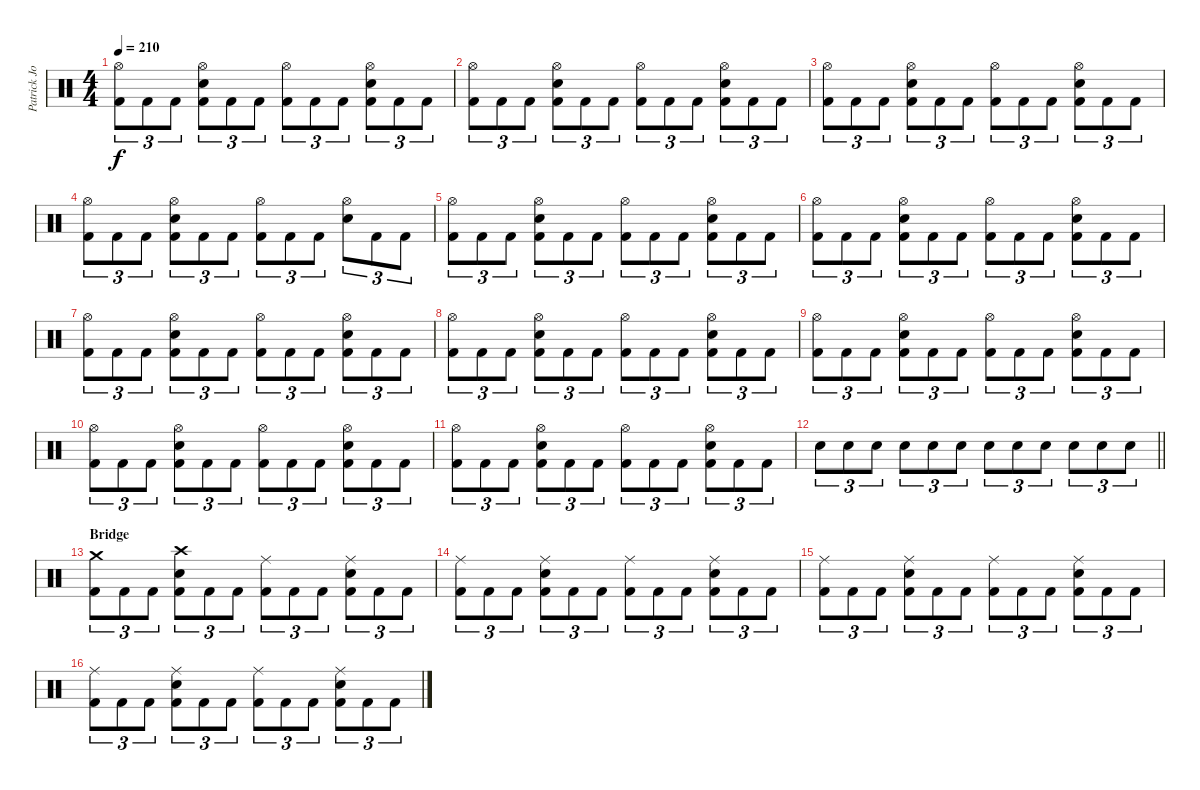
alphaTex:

\track ("Patrick Johansson" "Patrick Jo") {instrument percussion}
\staff {score}
\articulation defaults
\ts (4 4)
\tempo 210
\clef neutral
\ks c
("Hi-Hat (open)" "Kick (hit) 2").8{tu (3 2) dy f} "Kick (hit) 2".8{tu (3 2)} "Kick (hit) 2".8{tu (3 2)} ("Hi-Hat (open)" "Snare (hit) 2" "Kick (hit) 2").8{tu (3 2)} "Kick (hit) 2".8{tu (3 2)} "Kick (hit) 2".8{tu (3 2)} ("Hi-Hat (open)" "Kick (hit) 2").8{tu (3 2)} "Kick (hit) 2".8{tu (3 2)} "Kick (hit) 2".8{tu (3 2)} ("Hi-Hat (open)" "Snare (hit) 2" "Kick (hit) 2").8{tu (3 2)} "Kick (hit) 2".8{tu (3 2)} "Kick (hit) 2".8{tu (3 2)} |
("Hi-Hat (open)" "Kick (hit) 2").8{tu (3 2)} "Kick (hit) 2".8{tu (3 2)} "Kick (hit) 2".8{tu (3 2)} ("Hi-Hat (open)" "Snare (hit) 2" "Kick (hit) 2").8{tu (3 2)} "Kick (hit) 2".8{tu (3 2)} "Kick (hit) 2".8{tu (3 2)} ("Hi-Hat (open)" "Kick (hit) 2").8{tu (3 2)} "Kick (hit) 2".8{tu (3 2)} "Kick (hit) 2".8{tu (3 2)} ("Hi-Hat (open)" "Snare (hit) 2" "Kick (hit) 2").8{tu (3 2)} "Kick (hit) 2".8{tu (3 2)} "Kick (hit) 2".8{tu (3 2)} |
("Hi-Hat (open)" "Kick (hit) 2").8{tu (3 2)} "Kick (hit) 2".8{tu (3 2)} "Kick (hit) 2".8{tu (3 2)} ("Hi-Hat (open)" "Snare (hit) 2" "Kick (hit) 2").8{tu (3 2)} "Kick (hit) 2".8{tu (3 2)} "Kick (hit) 2".8{tu (3 2)} ("Hi-Hat (open)" "Kick (hit) 2").8{tu (3 2)} "Kick (hit) 2".8{tu (3 2)} "Kick (hit) 2".8{tu (3 2)} ("Hi-Hat (open)" "Snare (hit) 2" "Kick (hit) 2").8{tu (3 2)} "Kick (hit) 2".8{tu (3 2)} "Kick (hit) 2".8{tu (3 2)} |
("Hi-Hat (open)" "Kick (hit) 2").8{tu (3 2)} "Kick (hit) 2".8{tu (3 2)} "Kick (hit) 2".8{tu (3 2)} ("Hi-Hat (open)" "Snare (hit) 2" "Kick (hit) 2").8{tu (3 2)} "Kick (hit) 2".8{tu (3 2)} "Kick (hit) 2".8{tu (3 2)} ("Hi-Hat (open)" "Kick (hit) 2").8{tu (3 2)} "Kick (hit) 2".8{tu (3 2)} "Kick (hit) 2".8{tu (3 2)} ("Hi-Hat (open)" "Snare (hit) 2").8{tu (3 2)} "Kick (hit) 2".8{tu (3 2)} "Kick (hit) 2".8{tu (3 2)} |
("Hi-Hat (open)" "Kick (hit) 2").8{tu (3 2)} "Kick (hit) 2".8{tu (3 2)} "Kick (hit) 2".8{tu (3 2)} ("Hi-Hat (open)" "Snare (hit) 2" "Kick (hit) 2").8{tu (3 2)} "Kick (hit) 2".8{tu (3 2)} "Kick (hit) 2".8{tu (3 2)} ("Hi-Hat (open)" "Kick (hit) 2").8{tu (3 2)} "Kick (hit) 2".8{tu (3 2)} "Kick (hit) 2".8{tu (3 2)} ("Hi-Hat (open)" "Snare (hit) 2" "Kick (hit) 2").8{tu (3 2)} "Kick (hit) 2".8{tu (3 2)} "Kick (hit) 2".8{tu (3 2)} |
("Hi-Hat (open)" "Kick (hit) 2").8{tu (3 2)} "Kick (hit) 2".8{tu (3 2)} "Kick (hit) 2".8{tu (3 2)} ("Hi-Hat (open)" "Snare (hit) 2" "Kick (hit) 2").8{tu (3 2)} "Kick (hit) 2".8{tu (3 2)} "Kick (hit) 2".8{tu (3 2)} ("Hi-Hat (open)" "Kick (hit) 2").8{tu (3 2)} "Kick (hit) 2".8{tu (3 2)} "Kick (hit) 2".8{tu (3 2)} ("Hi-Hat (open)" "Snare (hit) 2" "Kick (hit) 2").8{tu (3 2)} "Kick (hit) 2".8{tu (3 2)} "Kick (hit) 2".8{tu (3 2)} |
("Hi-Hat (open)" "Kick (hit) 2").8{tu (3 2)} "Kick (hit) 2".8{tu (3 2)} "Kick (hit) 2".8{tu (3 2)} ("Hi-Hat (open)" "Snare (hit) 2" "Kick (hit) 2").8{tu (3 2)} "Kick (hit) 2".8{tu (3 2)} "Kick (hit) 2".8{tu (3 2)} ("Hi-Hat (open)" "Kick (hit) 2").8{tu (3 2)} "Kick (hit) 2".8{tu (3 2)} "Kick (hit) 2".8{tu (3 2)} ("Hi-Hat (open)" "Snare (hit) 2" "Kick (hit) 2").8{tu (3 2)} "Kick (hit) 2".8{tu (3 2)} "Kick (hit) 2".8{tu (3 2)} |
("Hi-Hat (open)" "Kick (hit) 2").8{tu (3 2)} "Kick (hit) 2".8{tu (3 2)} "Kick (hit) 2".8{tu (3 2)} ("Hi-Hat (open)" "Snare (hit) 2" "Kick (hit) 2").8{tu (3 2)} "Kick (hit) 2".8{tu (3 2)} "Kick (hit) 2".8{tu (3 2)} ("Hi-Hat (open)" "Kick (hit) 2").8{tu (3 2)} "Kick (hit) 2".8{tu (3 2)} "Kick (hit) 2".8{tu (3 2)} ("Hi-Hat (open)" "Snare (hit) 2" "Kick (hit) 2").8{tu (3 2)} "Kick (hit) 2".8{tu (3 2)} "Kick (hit) 2".8{tu (3 2)} |
("Hi-Hat (open)" "Kick (hit) 2").8{tu (3 2)} "Kick (hit) 2".8{tu (3 2)} "Kick (hit) 2".8{tu (3 2)} ("Hi-Hat (open)" "Snare (hit) 2" "Kick (hit) 2").8{tu (3 2)} "Kick (hit) 2".8{tu (3 2)} "Kick (hit) 2".8{tu (3 2)} ("Hi-Hat (open)" "Kick (hit) 2").8{tu (3 2)} "Kick (hit) 2".8{tu (3 2)} "Kick (hit) 2".8{tu (3 2)} ("Hi-Hat (open)" "Snare (hit) 2" "Kick (hit) 2").8{tu (3 2)} "Kick (hit) 2".8{tu (3 2)} "Kick (hit) 2".8{tu (3 2)} |
("Hi-Hat (open)" "Kick (hit) 2").8{tu (3 2)} "Kick (hit) 2".8{tu (3 2)} "Kick (hit) 2".8{tu (3 2)} ("Hi-Hat (open)" "Snare (hit) 2" "Kick (hit) 2").8{tu (3 2)} "Kick (hit) 2".8{tu (3 2)} "Kick (hit) 2".8{tu (3 2)} ("Hi-Hat (open)" "Kick (hit) 2").8{tu (3 2)} "Kick (hit) 2".8{tu (3 2)} "Kick (hit) 2".8{tu (3 2)} ("Hi-Hat (open)" "Snare (hit) 2" "Kick (hit) 2").8{tu (3 2)} "Kick (hit) 2".8{tu (3 2)} "Kick (hit) 2".8{tu (3 2)} |
("Hi-Hat (open)" "Kick (hit) 2").8{tu (3 2)} "Kick (hit) 2".8{tu (3 2)} "Kick (hit) 2".8{tu (3 2)} ("Hi-Hat (open)" "Snare (hit) 2" "Kick (hit) 2").8{tu (3 2)} "Kick (hit) 2".8{tu (3 2)} "Kick (hit) 2".8{tu (3 2)} ("Hi-Hat (open)" "Kick (hit) 2").8{tu (3 2)} "Kick (hit) 2".8{tu (3 2)} "Kick (hit) 2".8{tu (3 2)} ("Hi-Hat (open)" "Snare (hit) 2" "Kick (hit) 2").8{tu (3 2)} "Kick (hit) 2".8{tu (3 2)} "Kick (hit) 2".8{tu (3 2)} |
\barLineRight lightlight "Snare (hit) 2".8{tu (3 2)} "Snare (hit) 2".8{tu (3 2)} "Snare (hit) 2".8{tu (3 2)} "Snare (hit) 2".8{tu (3 2)} "Snare (hit) 2".8{tu (3 2)} "Snare (hit) 2".8{tu (3 2)} "Snare (hit) 2".8{tu (3 2)} "Snare (hit) 2".8{tu (3 2)} "Snare (hit) 2".8{tu (3 2)} "Snare (hit) 2".8{tu (3 2)} "Snare (hit) 2".8{tu (3 2)} "Snare (hit) 2".8{tu (3 2)}
|
\section ("" "Bridge")
("Crash medium (hit)" "Kick (hit) 2").8{tu (3 2)} "Kick (hit) 2".8{tu (3 2)} "Kick (hit) 2".8{tu (3 2)} ("Crash high (hit)" "Snare (hit) 2" "Kick (hit) 2").8{tu (3 2)} "Kick (hit) 2".8{tu (3 2)} "Kick (hit) 2".8{tu (3 2)} ("Ride (middle)" "Kick (hit) 2").8{tu (3 2)} "Kick (hit) 2".8{tu (3 2)} "Kick (hit) 2".8{tu (3 2)} ("Ride (middle)" "Snare (hit) 2" "Kick (hit) 2").8{tu (3 2)} "Kick (hit) 2".8{tu (3 2)} "Kick (hit) 2".8{tu (3 2)} |
("Ride (middle)" "Kick (hit) 2").8{tu (3 2)} "Kick (hit) 2".8{tu (3 2)} "Kick (hit) 2".8{tu (3 2)} ("Ride (middle)" "Snare (hit) 2" "Kick (hit) 2").8{tu (3 2)} "Kick (hit) 2".8{tu (3 2)} "Kick (hit) 2".8{tu (3 2)} ("Ride (middle)" "Kick (hit) 2").8{tu (3 2)} "Kick (hit) 2".8{tu (3 2)} "Kick (hit) 2".8{tu (3 2)} ("Ride (middle)" "Snare (hit) 2" "Kick (hit) 2").8{tu (3 2)} "Kick (hit) 2".8{tu (3 2)} "Kick (hit) 2".8{tu (3 2)} |
("Ride (middle)" "Kick (hit) 2").8{tu (3 2)} "Kick (hit) 2".8{tu (3 2)} "Kick (hit) 2".8{tu (3 2)} ("Ride (middle)" "Snare (hit) 2" "Kick (hit) 2").8{tu (3 2)} "Kick (hit) 2".8{tu (3 2)} "Kick (hit) 2".8{tu (3 2)} ("Ride (middle)" "Kick (hit) 2").8{tu (3 2)} "Kick (hit) 2".8{tu (3 2)} "Kick (hit) 2".8{tu (3 2)} ("Ride (middle)" "Snare (hit) 2" "Kick (hit) 2").8{tu (3 2)} "Kick (hit) 2".8{tu (3 2)} "Kick (hit) 2".8{tu (3 2)} |
("Ride (middle)" "Kick (hit) 2").8{tu (3 2)} "Kick (hit) 2".8{tu (3 2)} "Kick (hit) 2".8{tu (3 2)} ("Ride (middle)" "Snare (hit) 2" "Kick (hit) 2").8{tu (3 2)} "Kick (hit) 2".8{tu (3 2)} "Kick (hit) 2".8{tu (3 2)} ("Ride (middle)" "Kick (hit) 2").8{tu (3 2)} "Kick (hit) 2".8{tu (3 2)} "Kick (hit) 2".8{tu (3 2)} ("Ride (middle)" "Snare (hit) 2" "Kick (hit) 2").8{tu (3 2)} "Kick (hit) 2".8{tu (3 2)} "Kick (hit) 2".8{tu (3 2)}
